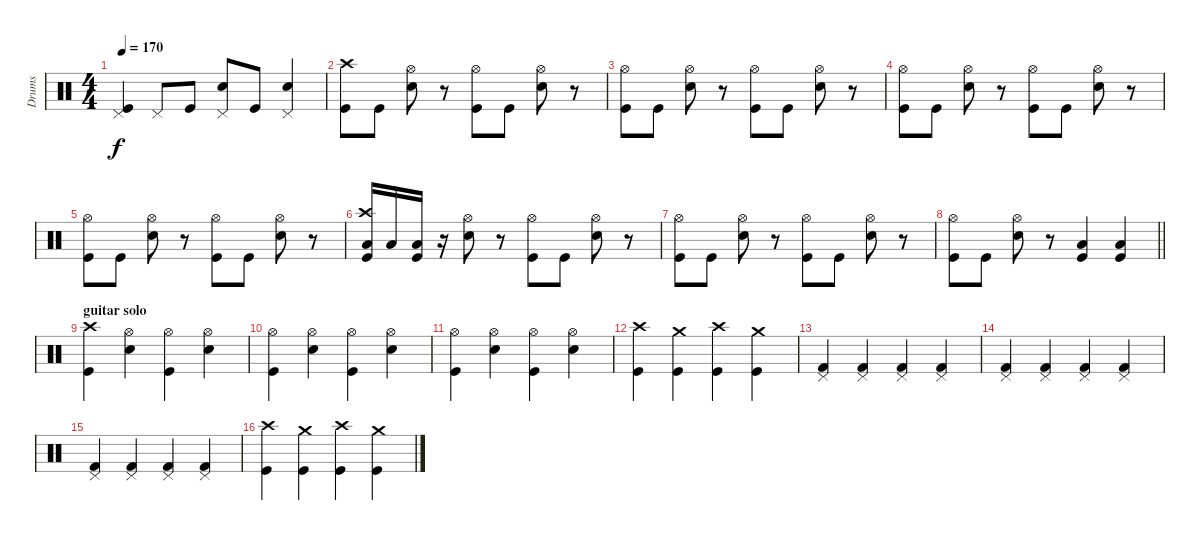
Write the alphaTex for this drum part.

\track ("Drums" "Drums") {instrument percussion}
\staff {score}
\articulation defaults
\ts (4 4)
\tempo 170
\clef neutral
\ks c
("Pedal Hi-Hat (hit)" "Kick (hit)").4{dy f} "Pedal Hi-Hat (hit)".8 "Kick (hit)".8 ("Snare (hit) 2" "Pedal Hi-Hat (hit)").8 "Kick (hit)".8 ("Snare (hit) 2" "Pedal Hi-Hat (hit)").4 |
("Crash high (hit)" "Kick (hit)").8 "Kick (hit)".8 ("Snare (hit) 2" "Hi-Hat (open)").8 r.8 ("Hi-Hat (open)" "Kick (hit)").8 "Kick (hit)".8 ("Snare (hit) 2" "Hi-Hat (open)").8 r.8 |
("Hi-Hat (open)" "Kick (hit)").8 "Kick (hit)".8 ("Snare (hit) 2" "Hi-Hat (open)").8 r.8 ("Hi-Hat (open)" "Kick (hit)").8 "Kick (hit)".8 ("Snare (hit) 2" "Hi-Hat (open)").8 r.8 |
("Hi-Hat (open)" "Kick (hit)").8 "Kick (hit)".8 ("Snare (hit) 2" "Hi-Hat (open)").8 r.8 ("Hi-Hat (open)" "Kick (hit)").8 "Kick (hit)".8 ("Snare (hit) 2" "Hi-Hat (open)").8 r.8 |
("Hi-Hat (open)" "Kick (hit)").8 "Kick (hit)".8 ("Snare (hit) 2" "Hi-Hat (open)").8 r.8 ("Hi-Hat (open)" "Kick (hit)").8 "Kick (hit)".8 ("Snare (hit) 2" "Hi-Hat (open)").8 r.8 |
("Crash high (hit)" "Low Tom (hit)" "Kick (hit)").16 "Low Tom (hit)".16 ("Low Tom (hit)" "Kick (hit)").16 r.16 ("Snare (hit) 2" "Hi-Hat (open)").8 r.8 ("Hi-Hat (open)" "Kick (hit)").8 "Kick (hit)".8 ("Snare (hit) 2" "Hi-Hat (open)").8 r.8 |
("Hi-Hat (open)" "Kick (hit)").8 "Kick (hit)".8 ("Snare (hit) 2" "Hi-Hat (open)").8 r.8 ("Hi-Hat (open)" "Kick (hit)").8 "Kick (hit)".8 ("Snare (hit) 2" "Hi-Hat (open)").8 r.8 |
\barLineRight lightlight
("Hi-Hat (open)" "Kick (hit)").8 "Kick (hit)".8 ("Snare (hit) 2" "Hi-Hat (open)").8 r.8 ("Low Tom (hit)" "Kick (hit)").4 ("Low Tom (hit)" "Kick (hit)").4 |
\section ("" "guitar solo")
("Crash high (hit)" "Kick (hit)").4 ("Snare (hit) 2" "Hi-Hat (open)").4 ("Hi-Hat (open)" "Kick (hit)").4 ("Snare (hit) 2" "Hi-Hat (open)").4 |
("Hi-Hat (open)" "Kick (hit)").4 ("Snare (hit) 2" "Hi-Hat (open)").4 ("Hi-Hat (open)" "Kick (hit)").4 ("Snare (hit) 2" "Hi-Hat (open)").4 |
("Hi-Hat (open)" "Kick (hit)").4 ("Snare (hit) 2" "Hi-Hat (open)").4 ("Hi-Hat (open)" "Kick (hit)").4 ("Snare (hit) 2" "Hi-Hat (open)").4 |
("Crash high (hit)" "Kick (hit)").4 ("Crash medium (hit)" "Kick (hit)").4 ("Crash high (hit)" "Kick (hit)").4 ("Crash medium (hit)" "Kick (hit)").4 |
("Kick (hit) 2" "Pedal Hi-Hat (hit)").4 ("Kick (hit) 2" "Pedal Hi-Hat (hit)").4 ("Kick (hit) 2" "Pedal Hi-Hat (hit)").4 ("Kick (hit) 2" "Pedal Hi-Hat (hit)").4 |
("Kick (hit) 2" "Pedal Hi-Hat (hit)").4 ("Kick (hit) 2" "Pedal Hi-Hat (hit)").4 ("Kick (hit) 2" "Pedal Hi-Hat (hit)").4 ("Kick (hit) 2" "Pedal Hi-Hat (hit)").4 |
("Kick (hit) 2" "Pedal Hi-Hat (hit)").4 ("Kick (hit) 2" "Pedal Hi-Hat (hit)").4 ("Kick (hit) 2" "Pedal Hi-Hat (hit)").4 ("Kick (hit) 2" "Pedal Hi-Hat (hit)").4 |
("Crash high (hit)" "Kick (hit)").4 ("Crash medium (hit)" "Kick (hit)").4 ("Crash high (hit)" "Kick (hit)").4 ("Crash medium (hit)" "Kick (hit)").4
